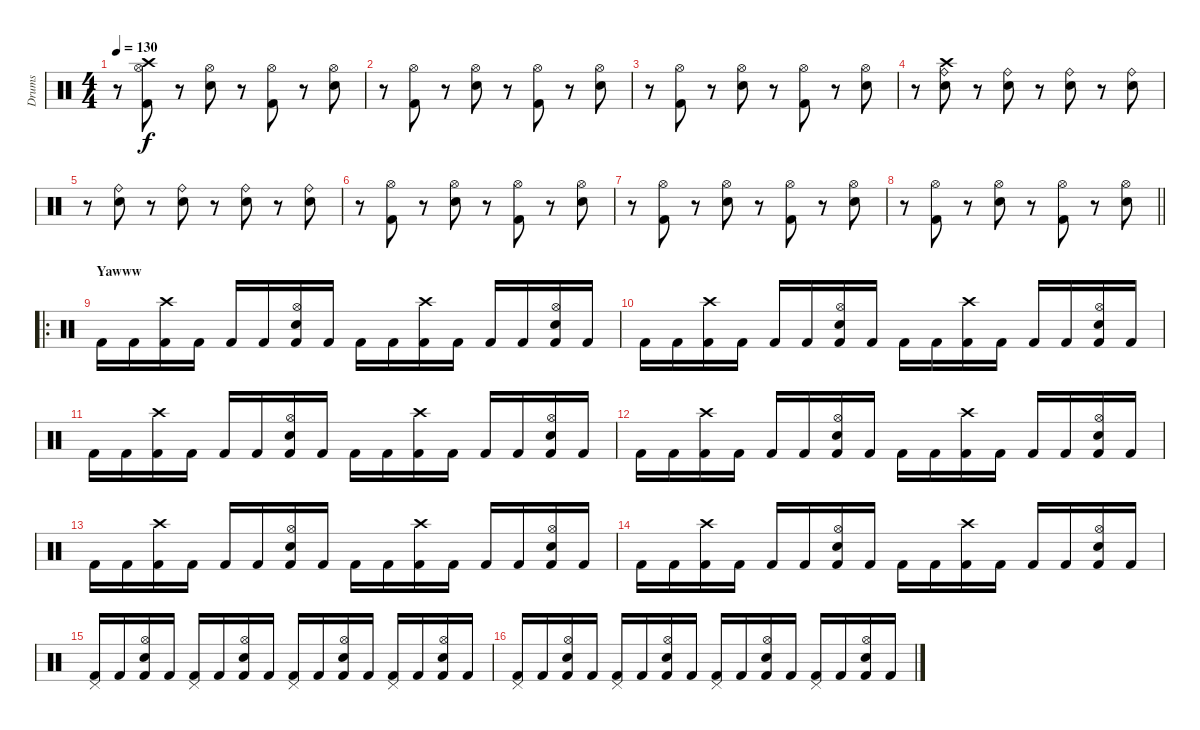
\track ("Drums" "Drums") {instrument percussion}
\staff {score}
\articulation defaults
\ts (4 4)
\tempo 130
\clef neutral
\ks c
r.8{dy f} ("Kick (hit) 2" "Crash high (hit)" "Hi-Hat (open)").8 r.8 ("Snare (hit) 2" "Hi-Hat (open)").8 r.8 ("Kick (hit) 2" "Hi-Hat (open)").8 r.8 ("Snare (hit) 2" "Hi-Hat (open)").8 |
r.8 ("Kick (hit) 2" "Hi-Hat (open)").8 r.8 ("Snare (hit) 2" "Hi-Hat (open)").8 r.8 ("Kick (hit) 2" "Hi-Hat (open)").8 r.8 ("Snare (hit) 2" "Hi-Hat (open)").8 |
r.8 ("Kick (hit) 2" "Hi-Hat (open)").8 r.8 ("Snare (hit) 2" "Hi-Hat (open)").8 r.8 ("Kick (hit) 2" "Hi-Hat (open)").8 r.8 ("Snare (hit) 2" "Hi-Hat (open)").8 |
r.8 ("Snare (hit) 2" "Ride (bell)" "Crash high (hit)").8 r.8 ("Snare (hit) 2" "Ride (bell)").8 r.8 ("Snare (hit) 2" "Ride (bell)").8 r.8 ("Snare (hit) 2" "Ride (bell)").8 |
r.8 ("Snare (hit) 2" "Ride (bell)").8 r.8 ("Snare (hit) 2" "Ride (bell)").8 r.8 ("Snare (hit) 2" "Ride (bell)").8 r.8 ("Snare (hit) 2" "Ride (bell)").8 |
r.8 ("Kick (hit) 2" "Hi-Hat (open)").8 r.8 ("Snare (hit) 2" "Hi-Hat (open)").8 r.8 ("Kick (hit) 2" "Hi-Hat (open)").8 r.8 ("Snare (hit) 2" "Hi-Hat (open)").8 |
r.8 ("Kick (hit) 2" "Hi-Hat (open)").8 r.8 ("Snare (hit) 2" "Hi-Hat (open)").8 r.8 ("Kick (hit) 2" "Hi-Hat (open)").8 r.8 ("Snare (hit) 2" "Hi-Hat (open)").8 |
\barLineRight lightlight
r.8 ("Kick (hit) 2" "Hi-Hat (open)").8 r.8 ("Snare (hit) 2" "Hi-Hat (open)").8 r.8 ("Kick (hit) 2" "Hi-Hat (open)").8 r.8 ("Snare (hit) 2" "Hi-Hat (open)").8 |
\ro
\section ("" "Yawww")
"Kick (hit) 2".16 "Kick (hit) 2".16 ("Crash high (hit)" "Kick (hit) 2").16 "Kick (hit) 2".16 "Kick (hit) 2".16 "Kick (hit) 2".16 ("Electric Snare (hit)" "Hi-Hat (open)" "Kick (hit) 2").16 "Kick (hit) 2".16 "Kick (hit) 2".16 "Kick (hit) 2".16 ("Crash high (hit)" "Kick (hit) 2").16 "Kick (hit) 2".16 "Kick (hit) 2".16 "Kick (hit) 2".16 ("Electric Snare (hit)" "Hi-Hat (open)" "Kick (hit) 2").16 "Kick (hit) 2".16 |
"Kick (hit) 2".16 "Kick (hit) 2".16 ("Crash high (hit)" "Kick (hit) 2").16 "Kick (hit) 2".16 "Kick (hit) 2".16 "Kick (hit) 2".16 ("Electric Snare (hit)" "Hi-Hat (open)" "Kick (hit) 2").16 "Kick (hit) 2".16 "Kick (hit) 2".16 "Kick (hit) 2".16 ("Crash high (hit)" "Kick (hit) 2").16 "Kick (hit) 2".16 "Kick (hit) 2".16 "Kick (hit) 2".16 ("Electric Snare (hit)" "Hi-Hat (open)" "Kick (hit) 2").16 "Kick (hit) 2".16 |
"Kick (hit) 2".16 "Kick (hit) 2".16 ("Crash high (hit)" "Kick (hit) 2").16 "Kick (hit) 2".16 "Kick (hit) 2".16 "Kick (hit) 2".16 ("Electric Snare (hit)" "Hi-Hat (open)" "Kick (hit) 2").16 "Kick (hit) 2".16 "Kick (hit) 2".16 "Kick (hit) 2".16 ("Crash high (hit)" "Kick (hit) 2").16 "Kick (hit) 2".16 "Kick (hit) 2".16 "Kick (hit) 2".16 ("Electric Snare (hit)" "Hi-Hat (open)" "Kick (hit) 2").16 "Kick (hit) 2".16 |
"Kick (hit) 2".16 "Kick (hit) 2".16 ("Crash high (hit)" "Kick (hit) 2").16 "Kick (hit) 2".16 "Kick (hit) 2".16 "Kick (hit) 2".16 ("Electric Snare (hit)" "Hi-Hat (open)" "Kick (hit) 2").16 "Kick (hit) 2".16 "Kick (hit) 2".16 "Kick (hit) 2".16 ("Crash high (hit)" "Kick (hit) 2").16 "Kick (hit) 2".16 "Kick (hit) 2".16 "Kick (hit) 2".16 ("Electric Snare (hit)" "Hi-Hat (open)" "Kick (hit) 2").16 "Kick (hit) 2".16 |
"Kick (hit) 2".16 "Kick (hit) 2".16 ("Crash high (hit)" "Kick (hit) 2").16 "Kick (hit) 2".16 "Kick (hit) 2".16 "Kick (hit) 2".16 ("Electric Snare (hit)" "Hi-Hat (open)" "Kick (hit) 2").16 "Kick (hit) 2".16 "Kick (hit) 2".16 "Kick (hit) 2".16 ("Crash high (hit)" "Kick (hit) 2").16 "Kick (hit) 2".16 "Kick (hit) 2".16 "Kick (hit) 2".16 ("Electric Snare (hit)" "Hi-Hat (open)" "Kick (hit) 2").16 "Kick (hit) 2".16 |
"Kick (hit) 2".16 "Kick (hit) 2".16 ("Crash high (hit)" "Kick (hit) 2").16 "Kick (hit) 2".16 "Kick (hit) 2".16 "Kick (hit) 2".16 ("Electric Snare (hit)" "Hi-Hat (open)" "Kick (hit) 2").16 "Kick (hit) 2".16 "Kick (hit) 2".16 "Kick (hit) 2".16 ("Crash high (hit)" "Kick (hit) 2").16 "Kick (hit) 2".16 "Kick (hit) 2".16 "Kick (hit) 2".16 ("Electric Snare (hit)" "Hi-Hat (open)" "Kick (hit) 2").16 "Kick (hit) 2".16 |
("Pedal Hi-Hat (hit)" "Kick (hit) 2").16 "Kick (hit) 2".16 ("Electric Snare (hit)" "Hi-Hat (open)" "Kick (hit) 2").16 "Kick (hit) 2".16 ("Pedal Hi-Hat (hit)" "Kick (hit) 2").16 "Kick (hit) 2".16 ("Electric Snare (hit)" "Hi-Hat (open)" "Kick (hit) 2").16 "Kick (hit) 2".16 ("Pedal Hi-Hat (hit)" "Kick (hit) 2").16 "Kick (hit) 2".16 ("Electric Snare (hit)" "Hi-Hat (open)" "Kick (hit) 2").16 "Kick (hit) 2".16 ("Pedal Hi-Hat (hit)" "Kick (hit) 2").16 "Kick (hit) 2".16 ("Electric Snare (hit)" "Hi-Hat (open)" "Kick (hit) 2").16 "Kick (hit) 2".16 |
("Pedal Hi-Hat (hit)" "Kick (hit) 2").16 "Kick (hit) 2".16 ("Electric Snare (hit)" "Hi-Hat (open)" "Kick (hit) 2").16 "Kick (hit) 2".16 ("Pedal Hi-Hat (hit)" "Kick (hit) 2").16 "Kick (hit) 2".16 ("Electric Snare (hit)" "Hi-Hat (open)" "Kick (hit) 2").16 "Kick (hit) 2".16 ("Pedal Hi-Hat (hit)" "Kick (hit) 2").16 "Kick (hit) 2".16 ("Electric Snare (hit)" "Hi-Hat (open)" "Kick (hit) 2").16 "Kick (hit) 2".16 ("Pedal Hi-Hat (hit)" "Kick (hit) 2").16 "Kick (hit) 2".16 ("Electric Snare (hit)" "Hi-Hat (open)" "Kick (hit) 2").16 "Kick (hit) 2".16
